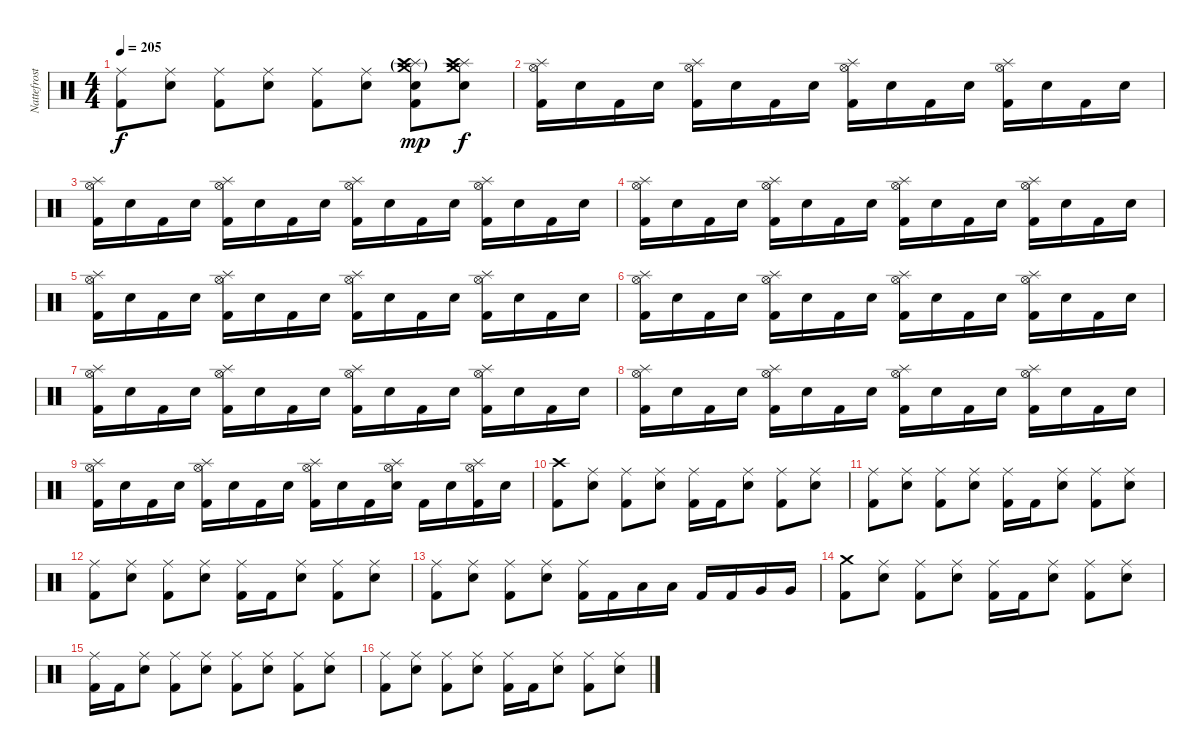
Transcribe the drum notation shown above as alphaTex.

\track ("Nattefrost" "Nattefrost") {instrument percussion}
\staff {score}
\articulation defaults
\ts (4 4)
\tempo 205
\clef neutral
\ks c
("Ride (middle)" "Kick (hit) 2").8{dy f} ("Ride (middle)" "Snare (hit) 2").8 ("Ride (middle)" "Kick (hit) 2").8 ("Ride (middle)" "Snare (hit) 2").8 ("Ride (middle)" "Kick (hit) 2").8 ("Ride (middle)" "Snare (hit) 2").8 ("Splash (hit)"{g} "Crash medium (hit)"{g} "Crash high (hit)"{g} "Snare (hit) 2" "Kick (hit) 2").8{dy mp} ("Splash (hit)" "Crash medium (hit)" "Crash high (hit)" "Snare (hit) 2").8{dy f} |
("Splash (hit)" "Hi-Hat (open)" "Kick (hit) 2").16 "Snare (hit) 2".16 "Kick (hit) 2".16 "Snare (hit) 2".16 ("Splash (hit)" "Hi-Hat (open)" "Kick (hit) 2").16 "Snare (hit) 2".16 "Kick (hit) 2".16 "Snare (hit) 2".16 ("Splash (hit)" "Hi-Hat (open)" "Kick (hit) 2").16 "Snare (hit) 2".16 "Kick (hit) 2".16 "Snare (hit) 2".16 ("Splash (hit)" "Hi-Hat (open)" "Kick (hit) 2").16 "Snare (hit) 2".16 "Kick (hit) 2".16 "Snare (hit) 2".16 |
("Splash (hit)" "Hi-Hat (open)" "Kick (hit) 2").16 "Snare (hit) 2".16 "Kick (hit) 2".16 "Snare (hit) 2".16 ("Splash (hit)" "Hi-Hat (open)" "Kick (hit) 2").16 "Snare (hit) 2".16 "Kick (hit) 2".16 "Snare (hit) 2".16 ("Splash (hit)" "Hi-Hat (open)" "Kick (hit) 2").16 "Snare (hit) 2".16 "Kick (hit) 2".16 "Snare (hit) 2".16 ("Splash (hit)" "Hi-Hat (open)" "Kick (hit) 2").16 "Snare (hit) 2".16 "Kick (hit) 2".16 "Snare (hit) 2".16 |
("Splash (hit)" "Hi-Hat (open)" "Kick (hit) 2").16 "Snare (hit) 2".16 "Kick (hit) 2".16 "Snare (hit) 2".16 ("Splash (hit)" "Hi-Hat (open)" "Kick (hit) 2").16 "Snare (hit) 2".16 "Kick (hit) 2".16 "Snare (hit) 2".16 ("Splash (hit)" "Hi-Hat (open)" "Kick (hit) 2").16 "Snare (hit) 2".16 "Kick (hit) 2".16 "Snare (hit) 2".16 ("Splash (hit)" "Hi-Hat (open)" "Kick (hit) 2").16 "Snare (hit) 2".16 "Kick (hit) 2".16 "Snare (hit) 2".16 |
("Splash (hit)" "Hi-Hat (open)" "Kick (hit) 2").16 "Snare (hit) 2".16 "Kick (hit) 2".16 "Snare (hit) 2".16 ("Splash (hit)" "Hi-Hat (open)" "Kick (hit) 2").16 "Snare (hit) 2".16 "Kick (hit) 2".16 "Snare (hit) 2".16 ("Splash (hit)" "Hi-Hat (open)" "Kick (hit) 2").16 "Snare (hit) 2".16 "Kick (hit) 2".16 "Snare (hit) 2".16 ("Splash (hit)" "Hi-Hat (open)" "Kick (hit) 2").16 "Snare (hit) 2".16 "Kick (hit) 2".16 "Snare (hit) 2".16 |
("Splash (hit)" "Hi-Hat (open)" "Kick (hit) 2").16 "Snare (hit) 2".16 "Kick (hit) 2".16 "Snare (hit) 2".16 ("Splash (hit)" "Hi-Hat (open)" "Kick (hit) 2").16 "Snare (hit) 2".16 "Kick (hit) 2".16 "Snare (hit) 2".16 ("Splash (hit)" "Hi-Hat (open)" "Kick (hit) 2").16 "Snare (hit) 2".16 "Kick (hit) 2".16 "Snare (hit) 2".16 ("Splash (hit)" "Hi-Hat (open)" "Kick (hit) 2").16 "Snare (hit) 2".16 "Kick (hit) 2".16 "Snare (hit) 2".16 |
("Splash (hit)" "Hi-Hat (open)" "Kick (hit) 2").16 "Snare (hit) 2".16 "Kick (hit) 2".16 "Snare (hit) 2".16 ("Splash (hit)" "Hi-Hat (open)" "Kick (hit) 2").16 "Snare (hit) 2".16 "Kick (hit) 2".16 "Snare (hit) 2".16 ("Splash (hit)" "Hi-Hat (open)" "Kick (hit) 2").16 "Snare (hit) 2".16 "Kick (hit) 2".16 "Snare (hit) 2".16 ("Splash (hit)" "Hi-Hat (open)" "Kick (hit) 2").16 "Snare (hit) 2".16 "Kick (hit) 2".16 "Snare (hit) 2".16 |
("Splash (hit)" "Hi-Hat (open)" "Kick (hit) 2").16 "Snare (hit) 2".16 "Kick (hit) 2".16 "Snare (hit) 2".16 ("Splash (hit)" "Hi-Hat (open)" "Kick (hit) 2").16 "Snare (hit) 2".16 "Kick (hit) 2".16 "Snare (hit) 2".16 ("Splash (hit)" "Hi-Hat (open)" "Kick (hit) 2").16 "Snare (hit) 2".16 "Kick (hit) 2".16 "Snare (hit) 2".16 ("Splash (hit)" "Hi-Hat (open)" "Kick (hit) 2").16 "Snare (hit) 2".16 "Kick (hit) 2".16 "Snare (hit) 2".16 |
("Splash (hit)" "Hi-Hat (open)" "Kick (hit) 2").16 "Snare (hit) 2".16 "Kick (hit) 2".16 "Snare (hit) 2".16 ("Splash (hit)" "Hi-Hat (open)" "Kick (hit) 2").16 "Snare (hit) 2".16 "Kick (hit) 2".16 "Snare (hit) 2".16 ("Splash (hit)" "Hi-Hat (open)" "Kick (hit) 2").16 "Snare (hit) 2".16 "Kick (hit) 2".16 ("Splash (hit)" "Hi-Hat (open)" "Snare (hit) 2").16 "Kick (hit) 2".16 "Snare (hit) 2".16 ("Splash (hit)" "Hi-Hat (open)" "Kick (hit) 2").16 "Snare (hit) 2".16 |
("Crash high (hit)" "Kick (hit) 2").8 ("Ride (middle)" "Snare (hit) 2").8 ("Ride (middle)" "Kick (hit) 2").8 ("Ride (middle)" "Snare (hit) 2").8 ("Ride (middle)" "Kick (hit) 2").16 "Kick (hit) 2".16 ("Ride (middle)" "Snare (hit) 2").8 ("Ride (middle)" "Kick (hit) 2").8 ("Ride (middle)" "Snare (hit) 2").8 |
("Ride (middle)" "Kick (hit) 2").8 ("Ride (middle)" "Snare (hit) 2").8 ("Ride (middle)" "Kick (hit) 2").8 ("Ride (middle)" "Snare (hit) 2").8 ("Ride (middle)" "Kick (hit) 2").16 "Kick (hit) 2".16 ("Ride (middle)" "Snare (hit) 2").8 ("Ride (middle)" "Kick (hit) 2").8 ("Ride (middle)" "Snare (hit) 2").8 |
("Ride (middle)" "Kick (hit) 2").8 ("Ride (middle)" "Snare (hit) 2").8 ("Ride (middle)" "Kick (hit) 2").8 ("Ride (middle)" "Snare (hit) 2").8 ("Ride (middle)" "Kick (hit) 2").16 "Kick (hit) 2".16 ("Ride (middle)" "Snare (hit) 2").8 ("Ride (middle)" "Kick (hit) 2").8 ("Ride (middle)" "Snare (hit) 2").8 |
("Ride (middle)" "Kick (hit) 2").8 ("Ride (middle)" "Snare (hit) 2").8 ("Ride (middle)" "Kick (hit) 2").8 ("Ride (middle)" "Snare (hit) 2").8 ("Ride (middle)" "Kick (hit) 2").16 "Kick (hit) 2".16 "Low Tom (hit)".16 "Low Tom (hit)".16 "Kick (hit) 2".16 "Kick (hit) 2".16 "Very Low Tom (hit)".16 "Very Low Tom (hit)".16 |
("Crash medium (hit)" "Kick (hit) 2").8 ("Ride (middle)" "Snare (hit) 2").8 ("Ride (middle)" "Kick (hit) 2").8 ("Ride (middle)" "Snare (hit) 2").8 ("Ride (middle)" "Kick (hit) 2").16 "Kick (hit) 2".16 ("Ride (middle)" "Snare (hit) 2").8 ("Ride (middle)" "Kick (hit) 2").8 ("Ride (middle)" "Snare (hit) 2").8 |
("Ride (middle)" "Kick (hit) 2").16 "Kick (hit) 2".16 ("Ride (middle)" "Snare (hit) 2").8 ("Ride (middle)" "Kick (hit) 2").8 ("Ride (middle)" "Snare (hit) 2").8 ("Ride (middle)" "Kick (hit) 2").8 ("Ride (middle)" "Snare (hit) 2").8 ("Ride (middle)" "Kick (hit) 2").8 ("Ride (middle)" "Snare (hit) 2").8 |
("Ride (middle)" "Kick (hit) 2").8 ("Ride (middle)" "Snare (hit) 2").8 ("Ride (middle)" "Kick (hit) 2").8 ("Ride (middle)" "Snare (hit) 2").8 ("Ride (middle)" "Kick (hit) 2").16 "Kick (hit) 2".16 ("Ride (middle)" "Snare (hit) 2").8 ("Ride (middle)" "Kick (hit) 2").8 ("Ride (middle)" "Snare (hit) 2").8
